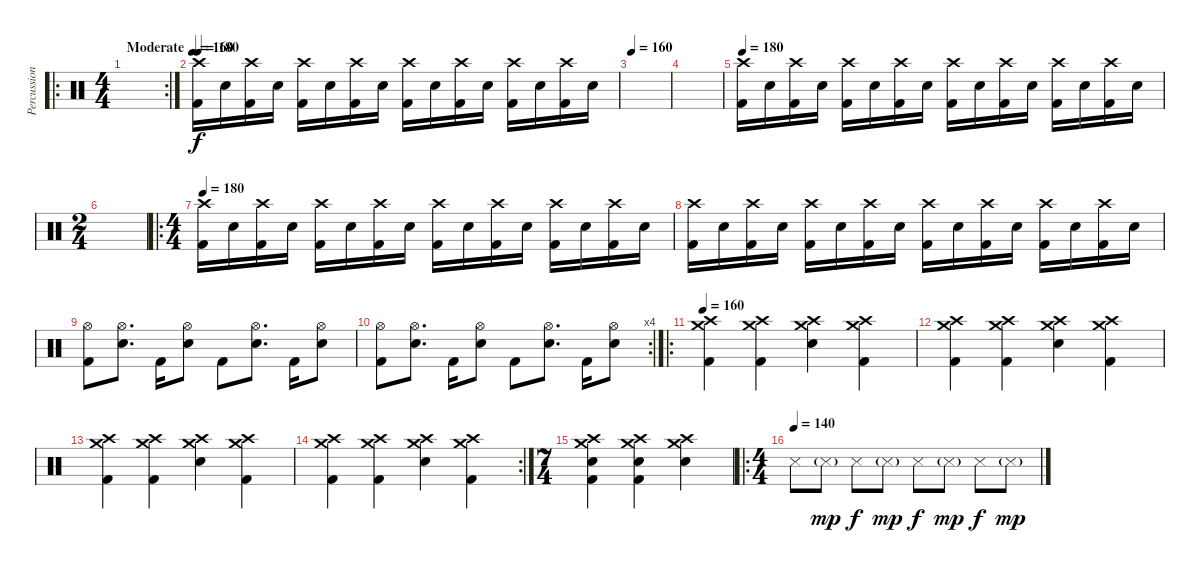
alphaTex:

\track ("Percussion" "Percussion") {instrument percussion}
\staff {score}
\articulation defaults
\ro
\rc 2
\ts (4 4)
\tempo (160 "Moderate")
\clef neutral
\ks c
|
\tempo 180
("Crash high (hit)" "Kick (hit) 2").16 "Electric Snare (hit)".16 ("Crash high (hit)" "Kick (hit) 2").16 "Electric Snare (hit)".16 ("Crash high (hit)" "Kick (hit) 2").16 "Electric Snare (hit)".16 ("Crash high (hit)" "Kick (hit) 2").16 "Electric Snare (hit)".16 ("Crash high (hit)" "Kick (hit) 2").16 "Electric Snare (hit)".16 ("Crash high (hit)" "Kick (hit) 2").16 "Electric Snare (hit)".16 ("Crash high (hit)" "Kick (hit) 2").16 "Electric Snare (hit)".16 ("Crash high (hit)" "Kick (hit) 2").16 "Electric Snare (hit)".16 |
\tempo 160
|
|
\tempo 180
("Crash high (hit)" "Kick (hit) 2").16 "Electric Snare (hit)".16 ("Crash high (hit)" "Kick (hit) 2").16 "Electric Snare (hit)".16 ("Crash high (hit)" "Kick (hit) 2").16 "Electric Snare (hit)".16 ("Crash high (hit)" "Kick (hit) 2").16 "Electric Snare (hit)".16 ("Crash high (hit)" "Kick (hit) 2").16 "Electric Snare (hit)".16 ("Crash high (hit)" "Kick (hit) 2").16 "Electric Snare (hit)".16 ("Crash high (hit)" "Kick (hit) 2").16 "Electric Snare (hit)".16 ("Crash high (hit)" "Kick (hit) 2").16 "Electric Snare (hit)".16 |
\ts (2 4)
|
\ro
\ts (4 4)
\tempo 180
("Crash high (hit)" "Kick (hit) 2").16 "Electric Snare (hit)".16 ("Crash high (hit)" "Kick (hit) 2").16 "Electric Snare (hit)".16 ("Crash high (hit)" "Kick (hit) 2").16 "Electric Snare (hit)".16 ("Crash high (hit)" "Kick (hit) 2").16 "Electric Snare (hit)".16 ("Crash high (hit)" "Kick (hit) 2").16 "Electric Snare (hit)".16 ("Crash high (hit)" "Kick (hit) 2").16 "Electric Snare (hit)".16 ("Crash high (hit)" "Kick (hit) 2").16 "Electric Snare (hit)".16 ("Crash high (hit)" "Kick (hit) 2").16 "Electric Snare (hit)".16 |
("Crash high (hit)" "Kick (hit) 2").16 "Electric Snare (hit)".16 ("Crash high (hit)" "Kick (hit) 2").16 "Electric Snare (hit)".16 ("Crash high (hit)" "Kick (hit) 2").16 "Electric Snare (hit)".16 ("Crash high (hit)" "Kick (hit) 2").16 "Electric Snare (hit)".16 ("Crash high (hit)" "Kick (hit) 2").16 "Electric Snare (hit)".16 ("Crash high (hit)" "Kick (hit) 2").16 "Electric Snare (hit)".16 ("Crash high (hit)" "Kick (hit) 2").16 "Electric Snare (hit)".16 ("Crash high (hit)" "Kick (hit) 2").16 "Electric Snare (hit)".16 |
("Hi-Hat (open)" "Kick (hit) 2").8 ("Hi-Hat (open)" "Electric Snare (hit)").8{d} "Kick (hit) 2".16 ("Hi-Hat (open)" "Electric Snare (hit)").8 "Kick (hit) 2".8 ("Hi-Hat (open)" "Electric Snare (hit)").8{d} "Kick (hit) 2".16 ("Hi-Hat (open)" "Electric Snare (hit)").8 |
\rc 4
("Hi-Hat (open)" "Kick (hit) 2").8 ("Hi-Hat (open)" "Electric Snare (hit)").8{d} "Kick (hit) 2".16 ("Hi-Hat (open)" "Electric Snare (hit)").8 "Kick (hit) 2".8 ("Hi-Hat (open)" "Electric Snare (hit)").8{d} "Kick (hit) 2".16 ("Hi-Hat (open)" "Electric Snare (hit)").8 |
\ro
\tempo 160
("Crash medium (hit)" "Crash high (hit)" "Kick (hit) 2").4 ("Crash medium (hit)" "Crash high (hit)" "Kick (hit) 2").4 ("Crash medium (hit)" "Crash high (hit)" "Electric Snare (hit)").4 ("Crash medium (hit)" "Crash high (hit)" "Kick (hit) 2").4 |
("Crash medium (hit)" "Crash high (hit)" "Kick (hit) 2").4 ("Crash medium (hit)" "Crash high (hit)" "Kick (hit) 2").4 ("Crash medium (hit)" "Crash high (hit)" "Electric Snare (hit)").4 ("Crash medium (hit)" "Crash high (hit)" "Kick (hit) 2").4 |
("Crash medium (hit)" "Crash high (hit)" "Kick (hit) 2").4 ("Crash medium (hit)" "Crash high (hit)" "Kick (hit) 2").4 ("Crash medium (hit)" "Crash high (hit)" "Electric Snare (hit)").4 ("Crash medium (hit)" "Crash high (hit)" "Kick (hit) 2").4 |
\rc 2
("Crash medium (hit)" "Crash high (hit)" "Kick (hit) 2").4 ("Crash medium (hit)" "Crash high (hit)" "Kick (hit) 2").4 ("Crash medium (hit)" "Crash high (hit)" "Electric Snare (hit)").4 ("Crash medium (hit)" "Crash high (hit)" "Kick (hit) 2").4 |
\ts (7 4)
("Crash medium (hit)" "Crash high (hit)" "Electric Snare (hit)" "Kick (hit) 2").4 ("Crash medium (hit)" "Crash high (hit)" "Electric Snare (hit)" "Kick (hit) 2").4 ("Crash medium (hit)" "Crash high (hit)" "Electric Snare (hit)").4 |
\ro
\ts (4 4)
\tempo (140)
"Snare (side stick) 3".8 "Snare (side stick) 3"{g}.8{dy mp} "Snare (side stick) 3".8{dy f} "Snare (side stick) 3"{g}.8{dy mp} "Snare (side stick) 3".8{dy f} "Snare (side stick) 3"{g}.8{dy mp} "Snare (side stick) 3".8{dy f} "Snare (side stick) 3"{g}.8{dy mp}
